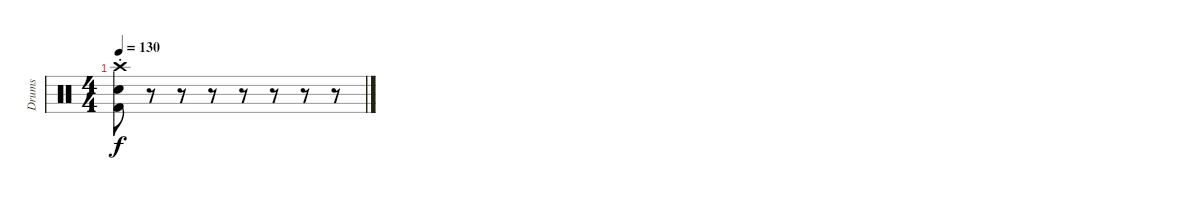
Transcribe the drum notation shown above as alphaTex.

\track ("Drums" "Drums") {instrument percussion}
\staff {score}
\articulation defaults
\ts (4 4)
\tempo 130
\clef neutral
\ks c
("Snare (hit) 2" "Kick (hit) 2" "Crash high (hit)"{st}).8{dy f} r.8 r.8 r.8 r.8 r.8 r.8 r.8
